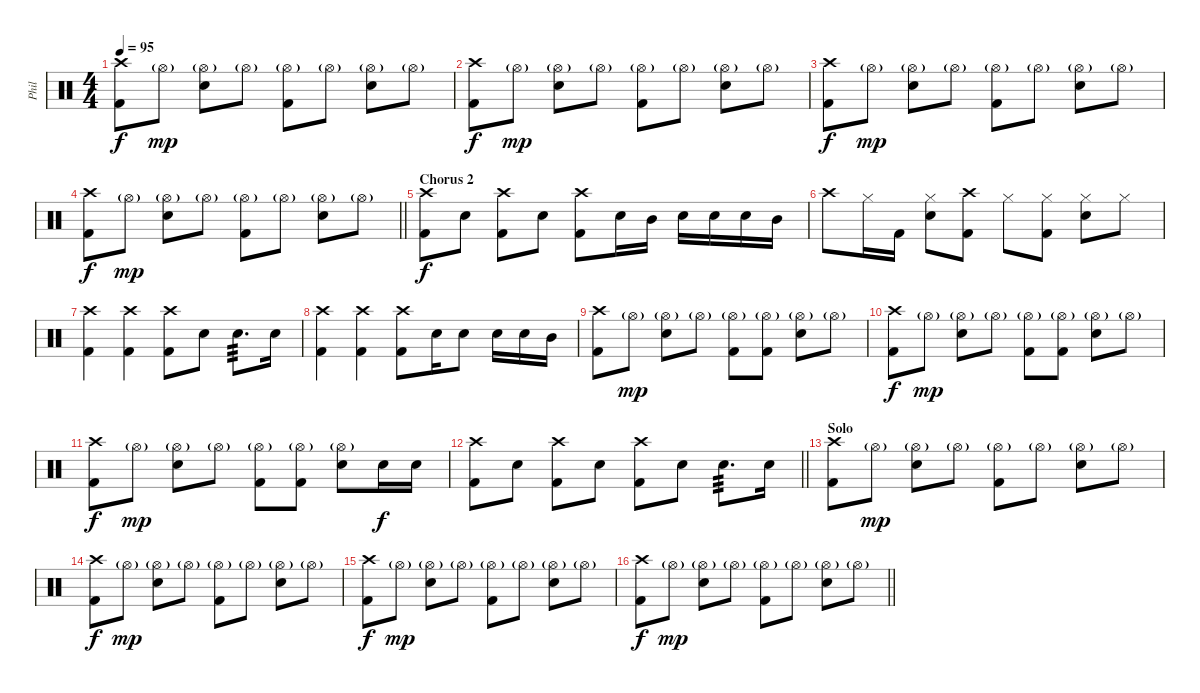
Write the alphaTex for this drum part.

\track ("Phil" "Phil") {instrument percussion}
\staff {score}
\articulation defaults
\ts (4 4)
\tempo 95
\clef neutral
\ks c
("Crash high (hit)" "Kick (hit) 2").8{dy f} "Hi-Hat (open)"{g}.8{dy mp} ("Hi-Hat (open)"{g} "Snare (hit) 2").8 "Hi-Hat (open)"{g}.8 ("Hi-Hat (open)"{g} "Kick (hit) 2").8 "Hi-Hat (open)"{g}.8 ("Hi-Hat (open)"{g} "Snare (hit) 2").8 "Hi-Hat (open)"{g}.8 |
("Crash high (hit)" "Kick (hit) 2").8{dy f} "Hi-Hat (open)"{g}.8{dy mp} ("Hi-Hat (open)"{g} "Snare (hit) 2").8 "Hi-Hat (open)"{g}.8 ("Hi-Hat (open)"{g} "Kick (hit) 2").8 "Hi-Hat (open)"{g}.8 ("Hi-Hat (open)"{g} "Snare (hit) 2").8 "Hi-Hat (open)"{g}.8 |
("Crash high (hit)" "Kick (hit) 2").8{dy f} "Hi-Hat (open)"{g}.8{dy mp} ("Hi-Hat (open)"{g} "Snare (hit) 2").8 "Hi-Hat (open)"{g}.8 ("Hi-Hat (open)"{g} "Kick (hit) 2").8 "Hi-Hat (open)"{g}.8 ("Hi-Hat (open)"{g} "Snare (hit) 2").8 "Hi-Hat (open)"{g}.8 |
\barLineRight lightlight
("Crash high (hit)" "Kick (hit) 2").8{dy f} "Hi-Hat (open)"{g}.8{dy mp} ("Hi-Hat (open)"{g} "Snare (hit) 2").8 "Hi-Hat (open)"{g}.8 ("Hi-Hat (open)"{g} "Kick (hit) 2").8 "Hi-Hat (open)"{g}.8 ("Hi-Hat (open)"{g} "Snare (hit) 2").8 "Hi-Hat (open)"{g}.8 |
\section ("" "Chorus 2")
("Crash high (hit)" "Kick (hit) 2").8{dy f} "Snare (hit) 2".8 ("Crash high (hit)" "Kick (hit) 2").8 "Snare (hit) 2".8 ("Crash high (hit)" "Kick (hit) 2").8 "Snare (hit) 2".16 "Mid Tom (hit)".16 "Snare (hit) 2".16 "Snare (hit) 2".16 "Snare (hit) 2".16 "Mid Tom (hit)".16 |
"Crash high (hit)".8 "Hi-Hat (closed)".16 "Kick (hit) 2".16 ("Hi-Hat (closed)" "Snare (hit) 2").8 ("Crash high (hit)" "Kick (hit) 2").8 "Hi-Hat (closed)".8 ("Hi-Hat (closed)" "Kick (hit) 2").8 ("Hi-Hat (closed)" "Snare (hit) 2").8 "Hi-Hat (closed)".8 |
("Crash high (hit)" "Kick (hit) 2").4 ("Crash high (hit)" "Kick (hit) 2").4 ("Crash high (hit)" "Kick (hit) 2").8 "Snare (hit) 2".8 "Snare (hit) 2".8{d tp 3} "Snare (hit) 2".16 |
("Crash high (hit)" "Kick (hit) 2").4 ("Crash high (hit)" "Kick (hit) 2").4 ("Crash high (hit)" "Kick (hit) 2").8 "Snare (hit) 2".16 "Snare (hit) 2".8 "Snare (hit) 2".16 "Snare (hit) 2".16 "Mid Tom (hit)".16 |
("Crash high (hit)" "Kick (hit) 2").8 "Hi-Hat (open)"{g}.8{dy mp} ("Hi-Hat (open)"{g} "Snare (hit) 2").8 "Hi-Hat (open)"{g}.8 ("Hi-Hat (open)"{g} "Kick (hit) 2").8 ("Hi-Hat (open)"{g} "Kick (hit) 2").8 ("Hi-Hat (open)"{g} "Snare (hit) 2").8 "Hi-Hat (open)"{g}.8 |
("Crash high (hit)" "Kick (hit) 2").8{dy f} "Hi-Hat (open)"{g}.8{dy mp} ("Hi-Hat (open)"{g} "Snare (hit) 2").8 "Hi-Hat (open)"{g}.8 ("Hi-Hat (open)"{g} "Kick (hit) 2").8 ("Hi-Hat (open)"{g} "Kick (hit) 2").8 ("Hi-Hat (open)"{g} "Snare (hit) 2").8 "Hi-Hat (open)"{g}.8 |
("Crash high (hit)" "Kick (hit) 2").8{dy f} "Hi-Hat (open)"{g}.8{dy mp} ("Hi-Hat (open)"{g} "Snare (hit) 2").8 "Hi-Hat (open)"{g}.8 ("Hi-Hat (open)"{g} "Kick (hit) 2").8 ("Hi-Hat (open)"{g} "Kick (hit) 2").8 ("Hi-Hat (open)"{g} "Snare (hit) 2").8 "Snare (hit) 2".16{dy f} "Snare (hit) 2".16 |
\barLineRight lightlight
("Crash high (hit)" "Kick (hit) 2").8 "Snare (hit) 2".8 ("Crash high (hit)" "Kick (hit) 2").8 "Snare (hit) 2".8 ("Crash high (hit)" "Kick (hit) 2").8 "Snare (hit) 2".8 "Snare (hit) 2".8{d tp 3} "Snare (hit) 2".16 |
\section ("" "Solo")
("Crash high (hit)" "Kick (hit) 2").8 "Hi-Hat (open)"{g}.8{dy mp} ("Hi-Hat (open)"{g} "Snare (hit) 2").8 "Hi-Hat (open)"{g}.8 ("Hi-Hat (open)"{g} "Kick (hit) 2").8 "Hi-Hat (open)"{g}.8 ("Hi-Hat (open)"{g} "Snare (hit) 2").8 "Hi-Hat (open)"{g}.8 |
("Crash high (hit)" "Kick (hit) 2").8{dy f} "Hi-Hat (open)"{g}.8{dy mp} ("Hi-Hat (open)"{g} "Snare (hit) 2").8 "Hi-Hat (open)"{g}.8 ("Hi-Hat (open)"{g} "Kick (hit) 2").8 "Hi-Hat (open)"{g}.8 ("Hi-Hat (open)"{g} "Snare (hit) 2").8 "Hi-Hat (open)"{g}.8 |
("Crash high (hit)" "Kick (hit) 2").8{dy f} "Hi-Hat (open)"{g}.8{dy mp} ("Hi-Hat (open)"{g} "Snare (hit) 2").8 "Hi-Hat (open)"{g}.8 ("Hi-Hat (open)"{g} "Kick (hit) 2").8 "Hi-Hat (open)"{g}.8 ("Hi-Hat (open)"{g} "Snare (hit) 2").8 "Hi-Hat (open)"{g}.8 |
\barLineRight lightlight
("Crash high (hit)" "Kick (hit) 2").8{dy f} "Hi-Hat (open)"{g}.8{dy mp} ("Hi-Hat (open)"{g} "Snare (hit) 2").8 "Hi-Hat (open)"{g}.8 ("Hi-Hat (open)"{g} "Kick (hit) 2").8 "Hi-Hat (open)"{g}.8 ("Hi-Hat (open)"{g} "Snare (hit) 2").8 "Hi-Hat (open)"{g}.8
